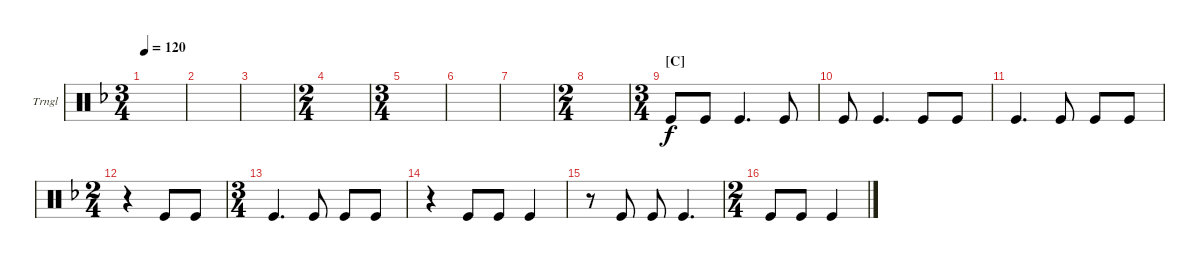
\defaultSystemsLayout 4
\bracketExtendMode groupsimilarinstruments
\firstSystemTrackNameOrientation horizontal
\otherSystemsTrackNameOrientation horizontal
\track ("Triangle" "Trngl") {instrument percussion}
\staff {score}
\articulation defaults
\ts (3 4)
\tempo 120
\clef neutral
\scale
0.4
\ks f
|
\scale
0.25 |
\scale
0.25 |
\ts (2 4)
\scale
0.5 |
\ts (3 4)
\beaming (8 3 1 2)
\scale
0.5 |
\scale
0.25 |
\scale
0.25 |
\ts (2 4)
\beaming (8 2 2)
\scale
0.4 |
\ts (3 4)
\section ("C" "")
\scale
0.4 "Kick (hit)".8 "Kick (hit)".8 "Kick (hit)".4{d} "Kick (hit)".8 |
\scale
0.2 "Kick (hit)".8 "Kick (hit)".4{d} "Kick (hit)".8 "Kick (hit)".8 |
\scale
0.2 "Kick (hit)".4{d} "Kick (hit)".8 "Kick (hit)".8 "Kick (hit)".8 |
\ts (2 4)
\scale
0.4 r.4 "Kick (hit)".8 "Kick (hit)".8 |
\ts (3 4)
\scale
0.4 "Kick (hit)".4{d} "Kick (hit)".8 "Kick (hit)".8 "Kick (hit)".8 |
\scale
0.25 r.4 "Kick (hit)".8 "Kick (hit)".8 "Kick (hit)".4 |
\scale
0.25 r.8 "Kick (hit)".8 "Kick (hit)".8 "Kick (hit)".4{d} |
\ts (2 4)
\scale
0.5 "Kick (hit)".8 "Kick (hit)".8 "Kick (hit)".4
